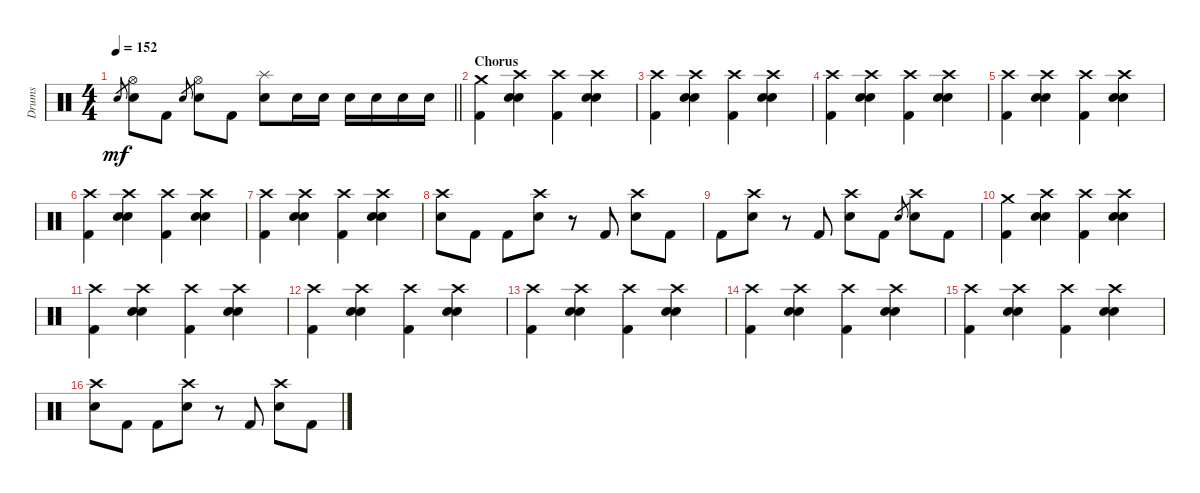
\track ("Drums" "Drums") {instrument percussion}
\staff {score}
\articulation defaults
\ts (4 4)
\tempo 152
\clef neutral
\barLineRight lightlight
\ks c "Snare (hit) 2".8{gr dy mf}
("Hi-Hat (open)" "Snare (hit) 2").8 "Kick (hit) 2".8 "Snare (hit) 2".8{gr} ("Hi-Hat (open)" "Snare (hit) 2").8 "Kick (hit) 2".8 ("Splash (hit)" "Snare (hit) 2").8 "Snare (hit) 2".16 "Snare (hit) 2".16 "Snare (hit) 2".16 "Snare (hit) 2".16 "Snare (hit) 2".16 "Snare (hit) 2".16 |
\section ("" "Chorus")
("Crash medium (hit)" "Kick (hit) 2").4 ("Crash high (hit)" "Electric Snare (hit)" "Snare (hit) 2").4 ("Crash high (hit)" "Kick (hit) 2").4 ("Crash high (hit)" "Electric Snare (hit)" "Snare (hit) 2").4 |
("Crash high (hit)" "Kick (hit) 2").4 ("Crash high (hit)" "Electric Snare (hit)" "Snare (hit) 2").4 ("Crash high (hit)" "Kick (hit) 2").4 ("Crash high (hit)" "Electric Snare (hit)" "Snare (hit) 2").4 |
("Crash high (hit)" "Kick (hit) 2").4 ("Crash high (hit)" "Electric Snare (hit)" "Snare (hit) 2").4 ("Crash high (hit)" "Kick (hit) 2").4 ("Crash high (hit)" "Electric Snare (hit)" "Snare (hit) 2").4 |
("Crash high (hit)" "Kick (hit) 2").4 ("Crash high (hit)" "Electric Snare (hit)" "Snare (hit) 2").4 ("Crash high (hit)" "Kick (hit) 2").4 ("Crash high (hit)" "Electric Snare (hit)" "Snare (hit) 2").4 |
("Crash high (hit)" "Kick (hit) 2").4 ("Crash high (hit)" "Electric Snare (hit)" "Snare (hit) 2").4 ("Crash high (hit)" "Kick (hit) 2").4 ("Crash high (hit)" "Electric Snare (hit)" "Snare (hit) 2").4 |
("Crash high (hit)" "Kick (hit) 2").4 ("Crash high (hit)" "Electric Snare (hit)" "Snare (hit) 2").4 ("Crash high (hit)" "Kick (hit) 2").4 ("Crash high (hit)" "Electric Snare (hit)" "Snare (hit) 2").4 |
("Crash high (hit)" "Snare (hit) 2").8 "Kick (hit) 2".8 "Kick (hit) 2".8 ("Crash high (hit)" "Snare (hit) 2").8 r.8 "Kick (hit) 2".8 ("Crash high (hit)" "Snare (hit) 2").8 "Kick (hit) 2".8 |
"Kick (hit) 2".8 ("Crash high (hit)" "Snare (hit) 2").8 r.8 "Kick (hit) 2".8 ("Crash high (hit)" "Snare (hit) 2").8 "Kick (hit) 2".8 "Snare (hit) 2".8{gr} ("Crash high (hit)" "Snare (hit) 2").8 "Kick (hit) 2".8 |
("Crash medium (hit)" "Kick (hit) 2").4 ("Crash high (hit)" "Electric Snare (hit)" "Snare (hit) 2").4 ("Crash high (hit)" "Kick (hit) 2").4 ("Crash high (hit)" "Electric Snare (hit)" "Snare (hit) 2").4 |
("Crash high (hit)" "Kick (hit) 2").4 ("Crash high (hit)" "Electric Snare (hit)" "Snare (hit) 2").4 ("Crash high (hit)" "Kick (hit) 2").4 ("Crash high (hit)" "Electric Snare (hit)" "Snare (hit) 2").4 |
("Crash high (hit)" "Kick (hit) 2").4 ("Crash high (hit)" "Electric Snare (hit)" "Snare (hit) 2").4 ("Crash high (hit)" "Kick (hit) 2").4 ("Crash high (hit)" "Electric Snare (hit)" "Snare (hit) 2").4 |
("Crash high (hit)" "Kick (hit) 2").4 ("Crash high (hit)" "Electric Snare (hit)" "Snare (hit) 2").4 ("Crash high (hit)" "Kick (hit) 2").4 ("Crash high (hit)" "Electric Snare (hit)" "Snare (hit) 2").4 |
("Crash high (hit)" "Kick (hit) 2").4 ("Crash high (hit)" "Electric Snare (hit)" "Snare (hit) 2").4 ("Crash high (hit)" "Kick (hit) 2").4 ("Crash high (hit)" "Electric Snare (hit)" "Snare (hit) 2").4 |
("Crash high (hit)" "Kick (hit) 2").4 ("Crash high (hit)" "Electric Snare (hit)" "Snare (hit) 2").4 ("Crash high (hit)" "Kick (hit) 2").4 ("Crash high (hit)" "Electric Snare (hit)" "Snare (hit) 2").4 |
("Crash high (hit)" "Snare (hit) 2").8 "Kick (hit) 2".8 "Kick (hit) 2".8 ("Crash high (hit)" "Snare (hit) 2").8 r.8 "Kick (hit) 2".8 ("Crash high (hit)" "Snare (hit) 2").8 "Kick (hit) 2".8
